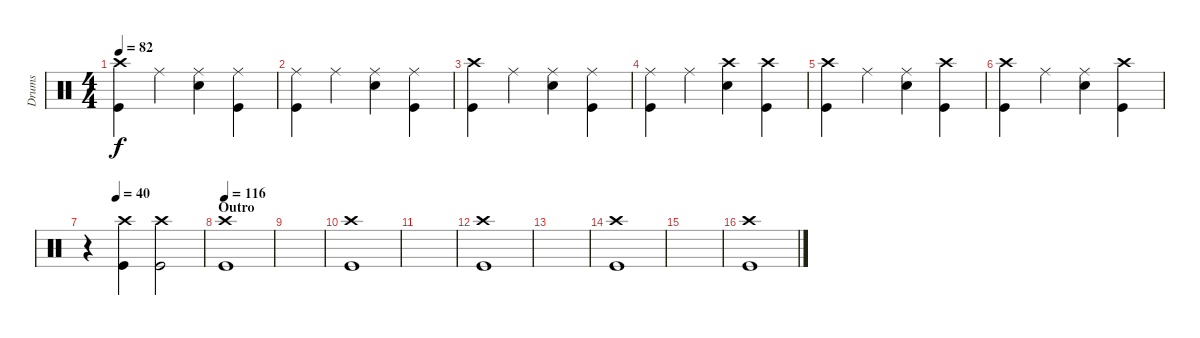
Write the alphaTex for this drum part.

\track ("Drums" "Drums") {instrument percussion}
\staff {score}
\articulation defaults
\ts (4 4)
\tempo 82
\clef neutral
\ks c
("Crash high (hit)" "Kick (hit)").4{dy f} "Ride (middle)".4 ("Ride (middle)" "Snare (hit) 2").4 ("Ride (middle)" "Kick (hit)").4 |
("Ride (middle)" "Kick (hit)").4 "Ride (middle)".4 ("Ride (middle)" "Snare (hit) 2").4 ("Ride (middle)" "Kick (hit)").4 |
("Crash high (hit)" "Kick (hit)").4 "Ride (middle)".4 ("Ride (middle)" "Snare (hit) 2").4 ("Ride (middle)" "Kick (hit)").4 |
("Ride (middle)" "Kick (hit)").4 "Ride (middle)".4 ("Crash high (hit)" "Snare (hit) 2").4 ("Crash high (hit)" "Kick (hit)").4 |
("Crash high (hit)" "Kick (hit)").4 "Ride (middle)".4 ("Ride (middle)" "Snare (hit) 2").4 ("Crash high (hit)" "Kick (hit)").4 |
("Crash high (hit)" "Kick (hit)").4 "Ride (middle)".4 ("Ride (middle)" "Snare (hit) 2").4 ("Crash high (hit)" "Kick (hit)").4 |
\tempo (40 0.25)
r.4 ("Crash high (hit)" "Kick (hit)").4 ("Crash high (hit)" "Kick (hit)").2 |
\section ("" "Outro")
\tempo 116
("Crash high (hit)" "Kick (hit)").1 |
|
("Crash high (hit)" "Kick (hit)").1 |
|
("Crash high (hit)" "Kick (hit)").1 |
|
("Crash high (hit)" "Kick (hit)").1 |
|
("Crash high (hit)" "Kick (hit)").1
